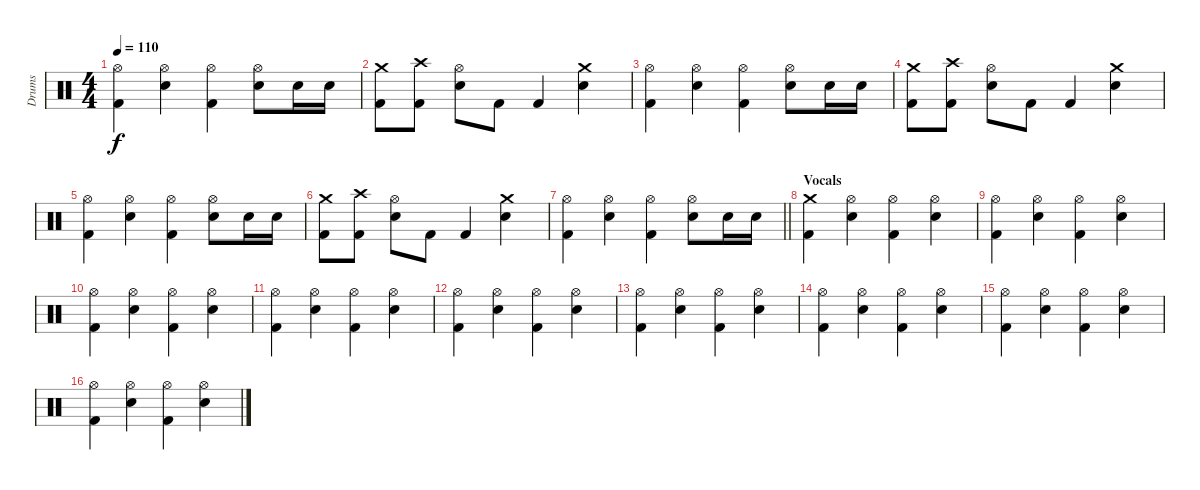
\track ("Drums" "Drums") {instrument percussion}
\staff {score}
\articulation defaults
\ts (4 4)
\tempo 110
\clef neutral
\ks c
("Hi-Hat (open)" "Kick (hit) 2").4{dy f} ("Hi-Hat (open)" "Snare (hit) 2").4 ("Hi-Hat (open)" "Kick (hit) 2").4 ("Hi-Hat (open)" "Snare (hit) 2").8 "Snare (hit) 2".16 "Snare (hit) 2".16 |
("Crash medium (hit)" "Kick (hit) 2").8 ("Crash high (hit)" "Kick (hit) 2").8 ("Hi-Hat (open)" "Snare (hit) 2").8 "Kick (hit) 2".8 "Kick (hit) 2".4 ("Crash medium (hit)" "Snare (hit) 2").4 |
("Hi-Hat (open)" "Kick (hit) 2").4 ("Hi-Hat (open)" "Snare (hit) 2").4 ("Hi-Hat (open)" "Kick (hit) 2").4 ("Hi-Hat (open)" "Snare (hit) 2").8 "Snare (hit) 2".16 "Snare (hit) 2".16 |
("Crash medium (hit)" "Kick (hit) 2").8 ("Crash high (hit)" "Kick (hit) 2").8 ("Hi-Hat (open)" "Snare (hit) 2").8 "Kick (hit) 2".8 "Kick (hit) 2".4 ("Crash medium (hit)" "Snare (hit) 2").4 |
("Hi-Hat (open)" "Kick (hit) 2").4 ("Hi-Hat (open)" "Snare (hit) 2").4 ("Hi-Hat (open)" "Kick (hit) 2").4 ("Hi-Hat (open)" "Snare (hit) 2").8 "Snare (hit) 2".16 "Snare (hit) 2".16 |
("Crash medium (hit)" "Kick (hit) 2").8 ("Crash high (hit)" "Kick (hit) 2").8 ("Hi-Hat (open)" "Snare (hit) 2").8 "Kick (hit) 2".8 "Kick (hit) 2".4 ("Crash medium (hit)" "Snare (hit) 2").4 |
\barLineRight lightlight
("Hi-Hat (open)" "Kick (hit) 2").4 ("Hi-Hat (open)" "Snare (hit) 2").4 ("Hi-Hat (open)" "Kick (hit) 2").4 ("Hi-Hat (open)" "Snare (hit) 2").8 "Snare (hit) 2".16 "Snare (hit) 2".16 |
\section ("" "Vocals")
("Crash medium (hit)" "Kick (hit) 2").4 ("Hi-Hat (open)" "Snare (hit) 2").4 ("Hi-Hat (open)" "Kick (hit) 2").4 ("Hi-Hat (open)" "Snare (hit) 2").4 |
("Hi-Hat (open)" "Kick (hit) 2").4 ("Hi-Hat (open)" "Snare (hit) 2").4 ("Hi-Hat (open)" "Kick (hit) 2").4 ("Hi-Hat (open)" "Snare (hit) 2").4 |
("Hi-Hat (open)" "Kick (hit) 2").4 ("Hi-Hat (open)" "Snare (hit) 2").4 ("Hi-Hat (open)" "Kick (hit) 2").4 ("Hi-Hat (open)" "Snare (hit) 2").4 |
("Hi-Hat (open)" "Kick (hit) 2").4 ("Hi-Hat (open)" "Snare (hit) 2").4 ("Hi-Hat (open)" "Kick (hit) 2").4 ("Hi-Hat (open)" "Snare (hit) 2").4 |
("Hi-Hat (open)" "Kick (hit) 2").4 ("Hi-Hat (open)" "Snare (hit) 2").4 ("Hi-Hat (open)" "Kick (hit) 2").4 ("Hi-Hat (open)" "Snare (hit) 2").4 |
("Hi-Hat (open)" "Kick (hit) 2").4 ("Hi-Hat (open)" "Snare (hit) 2").4 ("Hi-Hat (open)" "Kick (hit) 2").4 ("Hi-Hat (open)" "Snare (hit) 2").4 |
("Hi-Hat (open)" "Kick (hit) 2").4 ("Hi-Hat (open)" "Snare (hit) 2").4 ("Hi-Hat (open)" "Kick (hit) 2").4 ("Hi-Hat (open)" "Snare (hit) 2").4 |
("Hi-Hat (open)" "Kick (hit) 2").4 ("Hi-Hat (open)" "Snare (hit) 2").4 ("Hi-Hat (open)" "Kick (hit) 2").4 ("Hi-Hat (open)" "Snare (hit) 2").4 |
("Hi-Hat (open)" "Kick (hit) 2").4 ("Hi-Hat (open)" "Snare (hit) 2").4 ("Hi-Hat (open)" "Kick (hit) 2").4 ("Hi-Hat (open)" "Snare (hit) 2").4
